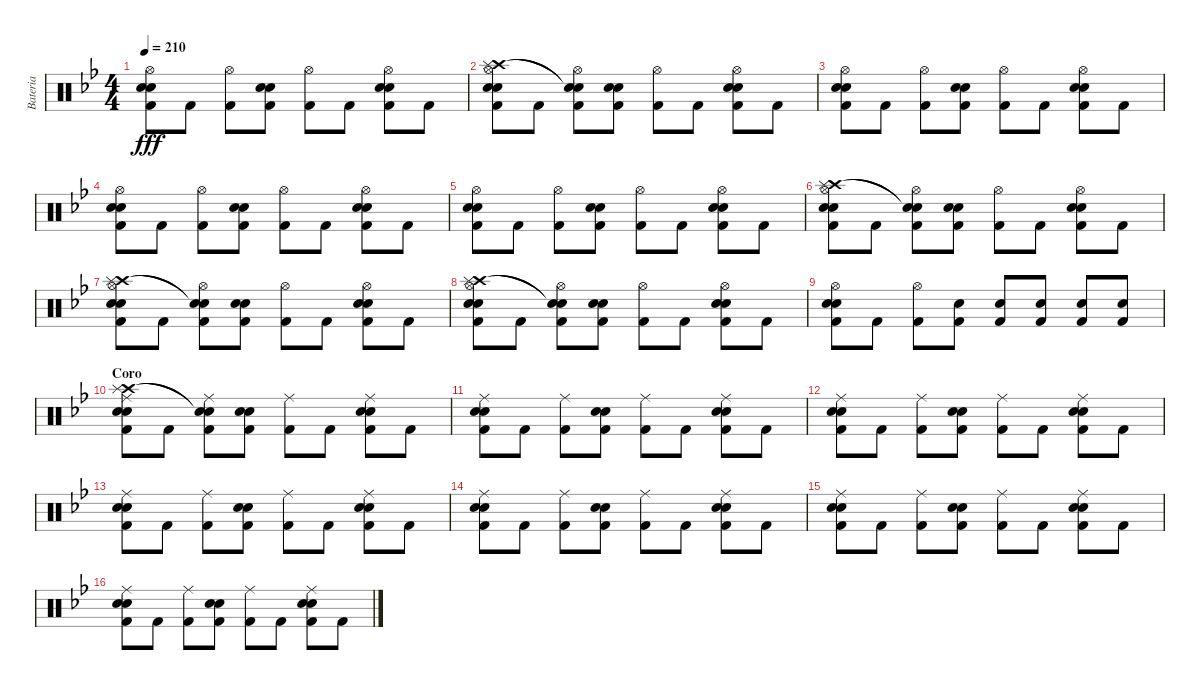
\track ("Bateria" "Bateria") {instrument percussion}
\staff {score}
\articulation defaults
\ts (4 4)
\tempo 210
\clef neutral
\ks gminor
("Hi-Hat (open)" "Snare (hit) 2" "Kick (hit) 2" "Electric Snare (hit)").8{dy fff} "Kick (hit) 2".8 ("Hi-Hat (open)" "Kick (hit) 2").8 ("Snare (hit) 2" "Kick (hit) 2" "Electric Snare (hit)").8 ("Hi-Hat (open)" "Kick (hit) 2").8 "Kick (hit) 2".8 ("Hi-Hat (open)" "Snare (hit) 2" "Kick (hit) 2" "Electric Snare (hit)").8 "Kick (hit) 2".8 |
("Hi-Hat (open)" "Crash high (hit)" "Splash (hit)" "Snare (hit) 2" "Kick (hit) 2" "Electric Snare (hit)").8 "Kick (hit) 2".8 ("Hi-Hat (open)" "Snare (hit)"{t} "Snare (hit)"{t} "Kick (hit) 2").8 ("Snare (hit) 2" "Kick (hit) 2" "Electric Snare (hit)").8 ("Hi-Hat (open)" "Kick (hit) 2").8 "Kick (hit) 2".8 ("Hi-Hat (open)" "Snare (hit) 2" "Kick (hit) 2" "Electric Snare (hit)").8 "Kick (hit) 2".8 |
("Hi-Hat (open)" "Snare (hit) 2" "Kick (hit) 2" "Electric Snare (hit)").8 "Kick (hit) 2".8 ("Hi-Hat (open)" "Kick (hit) 2").8 ("Snare (hit) 2" "Kick (hit) 2" "Electric Snare (hit)").8 ("Hi-Hat (open)" "Kick (hit) 2").8 "Kick (hit) 2".8 ("Hi-Hat (open)" "Snare (hit) 2" "Kick (hit) 2" "Electric Snare (hit)").8 "Kick (hit) 2".8 |
("Hi-Hat (open)" "Snare (hit) 2" "Kick (hit) 2" "Electric Snare (hit)").8 "Kick (hit) 2".8 ("Hi-Hat (open)" "Kick (hit) 2").8 ("Snare (hit) 2" "Kick (hit) 2" "Electric Snare (hit)").8 ("Hi-Hat (open)" "Kick (hit) 2").8 "Kick (hit) 2".8 ("Hi-Hat (open)" "Snare (hit) 2" "Kick (hit) 2" "Electric Snare (hit)").8 "Kick (hit) 2".8 |
("Hi-Hat (open)" "Snare (hit) 2" "Kick (hit) 2" "Electric Snare (hit)").8 "Kick (hit) 2".8 ("Hi-Hat (open)" "Kick (hit) 2").8 ("Snare (hit) 2" "Kick (hit) 2" "Electric Snare (hit)").8 ("Hi-Hat (open)" "Kick (hit) 2").8 "Kick (hit) 2".8 ("Hi-Hat (open)" "Snare (hit) 2" "Kick (hit) 2" "Electric Snare (hit)").8 "Kick (hit) 2".8 |
("Hi-Hat (open)" "Crash high (hit)" "Splash (hit)" "Snare (hit) 2" "Kick (hit) 2" "Electric Snare (hit)").8 "Kick (hit) 2".8 ("Hi-Hat (open)" "Snare (hit)"{t} "Snare (hit)"{t} "Kick (hit) 2").8 ("Snare (hit) 2" "Kick (hit) 2" "Electric Snare (hit)").8 ("Hi-Hat (open)" "Kick (hit) 2").8 "Kick (hit) 2".8 ("Hi-Hat (open)" "Snare (hit) 2" "Kick (hit) 2" "Electric Snare (hit)").8 "Kick (hit) 2".8 |
("Hi-Hat (open)" "Crash high (hit)" "Splash (hit)" "Snare (hit) 2" "Kick (hit) 2" "Electric Snare (hit)").8 "Kick (hit) 2".8 ("Hi-Hat (open)" "Snare (hit)"{t} "Snare (hit)"{t} "Kick (hit) 2").8 ("Snare (hit) 2" "Kick (hit) 2" "Electric Snare (hit)").8 ("Hi-Hat (open)" "Kick (hit) 2").8 "Kick (hit) 2".8 ("Hi-Hat (open)" "Snare (hit) 2" "Kick (hit) 2" "Electric Snare (hit)").8 "Kick (hit) 2".8 |
("Hi-Hat (open)" "Crash high (hit)" "Splash (hit)" "Snare (hit) 2" "Kick (hit) 2" "Electric Snare (hit)").8 "Kick (hit) 2".8 ("Hi-Hat (open)" "Snare (hit)"{t} "Snare (hit)"{t} "Kick (hit) 2").8 ("Snare (hit) 2" "Kick (hit) 2" "Electric Snare (hit)").8 ("Hi-Hat (open)" "Kick (hit) 2").8 "Kick (hit) 2".8 ("Hi-Hat (open)" "Snare (hit) 2" "Kick (hit) 2" "Electric Snare (hit)").8 "Kick (hit) 2".8 |
("Hi-Hat (open)" "Snare (hit) 2" "Kick (hit) 2" "Electric Snare (hit)").8 "Kick (hit) 2".8 ("Hi-Hat (open)" "Kick (hit) 2").8 ("Snare (hit) 2" "Kick (hit) 2").8 ("Snare (hit) 2" "Kick (hit) 2").8 ("Snare (hit) 2" "Kick (hit) 2").8 ("Snare (hit) 2" "Kick (hit) 2").8 ("Snare (hit) 2" "Kick (hit) 2").8 |
\section ("" "Coro")
("Ride (middle)" "Crash high (hit)" "Splash (hit)" "Snare (hit) 2" "Electric Snare (hit)" "Kick (hit) 2").8 "Kick (hit) 2".8 ("Ride (middle)" "Snare (hit)"{t} "Snare (hit)"{t} "Kick (hit) 2").8 ("Snare (hit) 2" "Electric Snare (hit)" "Kick (hit) 2").8 ("Ride (middle)" "Kick (hit) 2").8 "Kick (hit) 2".8 ("Ride (middle)" "Snare (hit) 2" "Electric Snare (hit)" "Kick (hit) 2").8 "Kick (hit) 2".8 |
("Ride (middle)" "Snare (hit) 2" "Kick (hit) 2" "Electric Snare (hit)").8 "Kick (hit) 2".8 ("Ride (middle)" "Kick (hit) 2").8 ("Snare (hit) 2" "Kick (hit) 2" "Electric Snare (hit)").8 ("Ride (middle)" "Kick (hit) 2").8 "Kick (hit) 2".8 ("Ride (middle)" "Snare (hit) 2" "Kick (hit) 2" "Electric Snare (hit)").8 "Kick (hit) 2".8 |
("Ride (middle)" "Snare (hit) 2" "Kick (hit) 2" "Electric Snare (hit)").8 "Kick (hit) 2".8 ("Ride (middle)" "Kick (hit) 2").8 ("Snare (hit) 2" "Kick (hit) 2" "Electric Snare (hit)").8 ("Ride (middle)" "Kick (hit) 2").8 "Kick (hit) 2".8 ("Ride (middle)" "Snare (hit) 2" "Kick (hit) 2" "Electric Snare (hit)").8 "Kick (hit) 2".8 |
("Ride (middle)" "Snare (hit) 2" "Kick (hit) 2" "Electric Snare (hit)").8 "Kick (hit) 2".8 ("Ride (middle)" "Kick (hit) 2").8 ("Snare (hit) 2" "Kick (hit) 2" "Electric Snare (hit)").8 ("Ride (middle)" "Kick (hit) 2").8 "Kick (hit) 2".8 ("Ride (middle)" "Snare (hit) 2" "Kick (hit) 2" "Electric Snare (hit)").8 "Kick (hit) 2".8 |
("Ride (middle)" "Snare (hit) 2" "Kick (hit) 2" "Electric Snare (hit)").8 "Kick (hit) 2".8 ("Ride (middle)" "Kick (hit) 2").8 ("Snare (hit) 2" "Kick (hit) 2" "Electric Snare (hit)").8 ("Ride (middle)" "Kick (hit) 2").8 "Kick (hit) 2".8 ("Ride (middle)" "Snare (hit) 2" "Kick (hit) 2" "Electric Snare (hit)").8 "Kick (hit) 2".8 |
("Ride (middle)" "Snare (hit) 2" "Kick (hit) 2" "Electric Snare (hit)").8 "Kick (hit) 2".8 ("Ride (middle)" "Kick (hit) 2").8 ("Snare (hit) 2" "Kick (hit) 2" "Electric Snare (hit)").8 ("Ride (middle)" "Kick (hit) 2").8 "Kick (hit) 2".8 ("Ride (middle)" "Snare (hit) 2" "Kick (hit) 2" "Electric Snare (hit)").8 "Kick (hit) 2".8 |
("Ride (middle)" "Snare (hit) 2" "Kick (hit) 2" "Electric Snare (hit)").8 "Kick (hit) 2".8 ("Ride (middle)" "Kick (hit) 2").8 ("Snare (hit) 2" "Kick (hit) 2" "Electric Snare (hit)").8 ("Ride (middle)" "Kick (hit) 2").8 "Kick (hit) 2".8 ("Ride (middle)" "Snare (hit) 2" "Kick (hit) 2" "Electric Snare (hit)").8 "Kick (hit) 2".8
